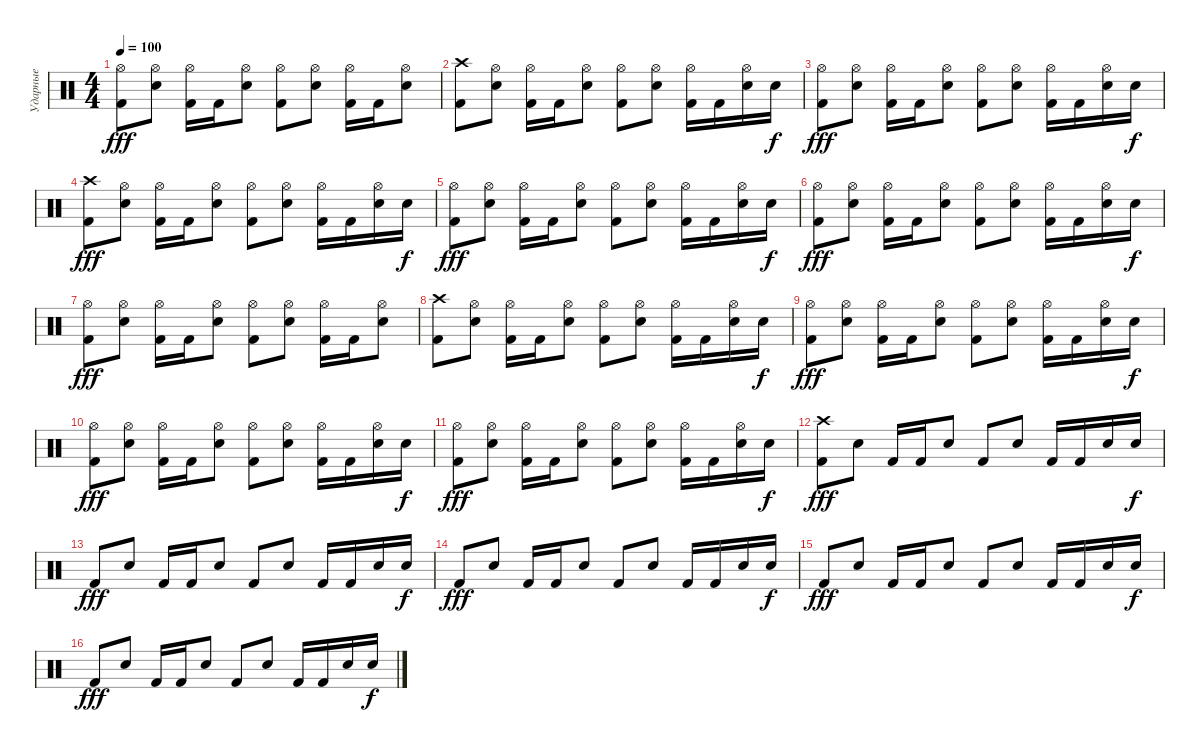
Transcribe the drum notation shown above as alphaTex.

\track ("Ударные" "Ударные") {instrument percussion}
\staff {score}
\articulation defaults
\ts (4 4)
\tempo 100
\clef neutral
\ks c
("Hi-Hat (open)" "Kick (hit) 2").8{dy fff} ("Hi-Hat (open)" "Snare (hit) 2").8 ("Hi-Hat (open)" "Kick (hit) 2").16 "Kick (hit) 2".16 ("Hi-Hat (open)" "Snare (hit) 2").8 ("Hi-Hat (open)" "Kick (hit) 2").8 ("Hi-Hat (open)" "Snare (hit) 2").8 ("Hi-Hat (open)" "Kick (hit) 2").16 "Kick (hit) 2".16 ("Hi-Hat (open)" "Snare (hit) 2").8 |
("Crash high (hit)" "Kick (hit) 2").8 ("Hi-Hat (open)" "Snare (hit) 2").8 ("Hi-Hat (open)" "Kick (hit) 2").16 "Kick (hit) 2".16 ("Hi-Hat (open)" "Snare (hit) 2").8 ("Hi-Hat (open)" "Kick (hit) 2").8 ("Hi-Hat (open)" "Snare (hit) 2").8 ("Hi-Hat (open)" "Kick (hit) 2").16 "Kick (hit) 2".16 ("Hi-Hat (open)" "Snare (hit) 2").16 "Snare (hit) 2".16{dy f} |
("Hi-Hat (open)" "Kick (hit) 2").8{dy fff} ("Hi-Hat (open)" "Snare (hit) 2").8 ("Hi-Hat (open)" "Kick (hit) 2").16 "Kick (hit) 2".16 ("Hi-Hat (open)" "Snare (hit) 2").8 ("Hi-Hat (open)" "Kick (hit) 2").8 ("Hi-Hat (open)" "Snare (hit) 2").8 ("Hi-Hat (open)" "Kick (hit) 2").16 "Kick (hit) 2".16 ("Hi-Hat (open)" "Snare (hit) 2").16 "Snare (hit) 2".16{dy f} |
("Crash high (hit)" "Kick (hit) 2").8{dy fff} ("Hi-Hat (open)" "Snare (hit) 2").8 ("Hi-Hat (open)" "Kick (hit) 2").16 "Kick (hit) 2".16 ("Hi-Hat (open)" "Snare (hit) 2").8 ("Hi-Hat (open)" "Kick (hit) 2").8 ("Hi-Hat (open)" "Snare (hit) 2").8 ("Hi-Hat (open)" "Kick (hit) 2").16 "Kick (hit) 2".16 ("Hi-Hat (open)" "Snare (hit) 2").16 "Snare (hit) 2".16{dy f} |
("Hi-Hat (open)" "Kick (hit) 2").8{dy fff} ("Hi-Hat (open)" "Snare (hit) 2").8 ("Hi-Hat (open)" "Kick (hit) 2").16 "Kick (hit) 2".16 ("Hi-Hat (open)" "Snare (hit) 2").8 ("Hi-Hat (open)" "Kick (hit) 2").8 ("Hi-Hat (open)" "Snare (hit) 2").8 ("Hi-Hat (open)" "Kick (hit) 2").16 "Kick (hit) 2".16 ("Hi-Hat (open)" "Snare (hit) 2").16 "Snare (hit) 2".16{dy f} |
("Hi-Hat (open)" "Kick (hit) 2").8{dy fff} ("Hi-Hat (open)" "Snare (hit) 2").8 ("Hi-Hat (open)" "Kick (hit) 2").16 "Kick (hit) 2".16 ("Hi-Hat (open)" "Snare (hit) 2").8 ("Hi-Hat (open)" "Kick (hit) 2").8 ("Hi-Hat (open)" "Snare (hit) 2").8 ("Hi-Hat (open)" "Kick (hit) 2").16 "Kick (hit) 2".16 ("Hi-Hat (open)" "Snare (hit) 2").16 "Snare (hit) 2".16{dy f} |
("Hi-Hat (open)" "Kick (hit) 2").8{dy fff} ("Hi-Hat (open)" "Snare (hit) 2").8 ("Hi-Hat (open)" "Kick (hit) 2").16 "Kick (hit) 2".16 ("Hi-Hat (open)" "Snare (hit) 2").8 ("Hi-Hat (open)" "Kick (hit) 2").8 ("Hi-Hat (open)" "Snare (hit) 2").8 ("Hi-Hat (open)" "Kick (hit) 2").16 "Kick (hit) 2".16 ("Hi-Hat (open)" "Snare (hit) 2").8 |
("Crash high (hit)" "Kick (hit) 2").8 ("Hi-Hat (open)" "Snare (hit) 2").8 ("Hi-Hat (open)" "Kick (hit) 2").16 "Kick (hit) 2".16 ("Hi-Hat (open)" "Snare (hit) 2").8 ("Hi-Hat (open)" "Kick (hit) 2").8 ("Hi-Hat (open)" "Snare (hit) 2").8 ("Hi-Hat (open)" "Kick (hit) 2").16 "Kick (hit) 2".16 ("Hi-Hat (open)" "Snare (hit) 2").16 "Snare (hit) 2".16{dy f} |
("Hi-Hat (open)" "Kick (hit) 2").8{dy fff} ("Hi-Hat (open)" "Snare (hit) 2").8 ("Hi-Hat (open)" "Kick (hit) 2").16 "Kick (hit) 2".16 ("Hi-Hat (open)" "Snare (hit) 2").8 ("Hi-Hat (open)" "Kick (hit) 2").8 ("Hi-Hat (open)" "Snare (hit) 2").8 ("Hi-Hat (open)" "Kick (hit) 2").16 "Kick (hit) 2".16 ("Hi-Hat (open)" "Snare (hit) 2").16 "Snare (hit) 2".16{dy f} |
("Hi-Hat (open)" "Kick (hit) 2").8{dy fff} ("Hi-Hat (open)" "Snare (hit) 2").8 ("Hi-Hat (open)" "Kick (hit) 2").16 "Kick (hit) 2".16 ("Hi-Hat (open)" "Snare (hit) 2").8 ("Hi-Hat (open)" "Kick (hit) 2").8 ("Hi-Hat (open)" "Snare (hit) 2").8 ("Hi-Hat (open)" "Kick (hit) 2").16 "Kick (hit) 2".16 ("Hi-Hat (open)" "Snare (hit) 2").16 "Snare (hit) 2".16{dy f} |
("Hi-Hat (open)" "Kick (hit) 2").8{dy fff} ("Hi-Hat (open)" "Snare (hit) 2").8 ("Hi-Hat (open)" "Kick (hit) 2").16 "Kick (hit) 2".16 ("Hi-Hat (open)" "Snare (hit) 2").8 ("Hi-Hat (open)" "Kick (hit) 2").8 ("Hi-Hat (open)" "Snare (hit) 2").8 ("Hi-Hat (open)" "Kick (hit) 2").16 "Kick (hit) 2".16 ("Hi-Hat (open)" "Snare (hit) 2").16 "Snare (hit) 2".16{dy f} |
("Crash high (hit)" "Kick (hit) 2").8{dy fff} "Snare (hit) 2".8 "Kick (hit) 2".16 "Kick (hit) 2".16 "Snare (hit) 2".8 "Kick (hit) 2".8 "Snare (hit) 2".8 "Kick (hit) 2".16 "Kick (hit) 2".16 "Snare (hit) 2".16 "Snare (hit) 2".16{dy f} |
"Kick (hit) 2".8{dy fff} "Snare (hit) 2".8 "Kick (hit) 2".16 "Kick (hit) 2".16 "Snare (hit) 2".8 "Kick (hit) 2".8 "Snare (hit) 2".8 "Kick (hit) 2".16 "Kick (hit) 2".16 "Snare (hit) 2".16 "Snare (hit) 2".16{dy f} |
"Kick (hit) 2".8{dy fff} "Snare (hit) 2".8 "Kick (hit) 2".16 "Kick (hit) 2".16 "Snare (hit) 2".8 "Kick (hit) 2".8 "Snare (hit) 2".8 "Kick (hit) 2".16 "Kick (hit) 2".16 "Snare (hit) 2".16 "Snare (hit) 2".16{dy f} |
"Kick (hit) 2".8{dy fff} "Snare (hit) 2".8 "Kick (hit) 2".16 "Kick (hit) 2".16 "Snare (hit) 2".8 "Kick (hit) 2".8 "Snare (hit) 2".8 "Kick (hit) 2".16 "Kick (hit) 2".16 "Snare (hit) 2".16 "Snare (hit) 2".16{dy f} |
"Kick (hit) 2".8{dy fff} "Snare (hit) 2".8 "Kick (hit) 2".16 "Kick (hit) 2".16 "Snare (hit) 2".8 "Kick (hit) 2".8 "Snare (hit) 2".8 "Kick (hit) 2".16 "Kick (hit) 2".16 "Snare (hit) 2".16 "Snare (hit) 2".16{dy f}
